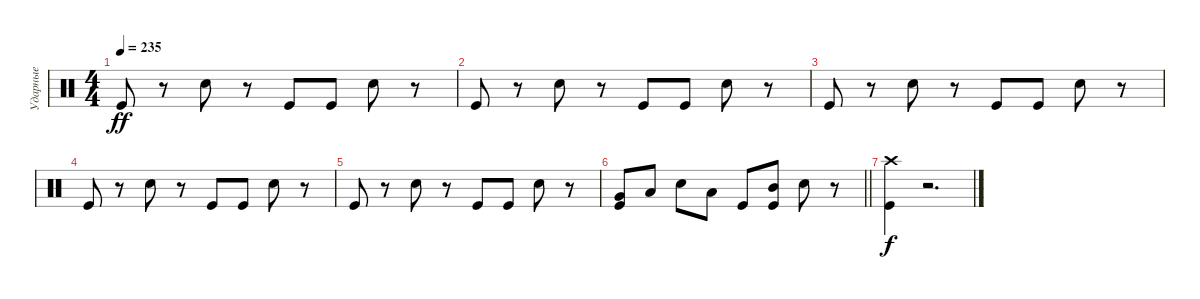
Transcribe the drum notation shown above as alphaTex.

\track ("Ударные" "Ударные") {instrument percussion}
\staff {score}
\articulation defaults
\ts (4 4)
\tempo 235
\clef neutral
\ks c "Kick (hit)".8{dy ff}
r.8 "Snare (hit) 2".8 r.8 "Kick (hit)".8 "Kick (hit)".8 "Snare (hit) 2".8 r.8 |
"Kick (hit)".8 r.8 "Snare (hit) 2".8 r.8 "Kick (hit)".8 "Kick (hit)".8 "Snare (hit) 2".8 r.8 |
"Kick (hit)".8 r.8 "Snare (hit) 2".8 r.8 "Kick (hit)".8 "Kick (hit)".8 "Snare (hit) 2".8 r.8 |
"Kick (hit)".8 r.8 "Snare (hit) 2".8 r.8 "Kick (hit)".8 "Kick (hit)".8 "Snare (hit) 2".8 r.8 |
"Kick (hit)".8 r.8 "Snare (hit) 2".8 r.8 "Kick (hit)".8 "Kick (hit)".8 "Snare (hit) 2".8 r.8 |
\barLineRight lightlight
("Kick (hit)" "Very Low Tom (hit)").8 "Low Tom (hit)".8 "Snare (hit) 2".8 "Low Tom (hit)".8 "Kick (hit)".8 ("Kick (hit)" "Mid Tom (hit)").8 "Snare (hit) 2".8 r.8 |
("Kick (hit)" "Crash high (hit)").4{dy f} r.2{d}
